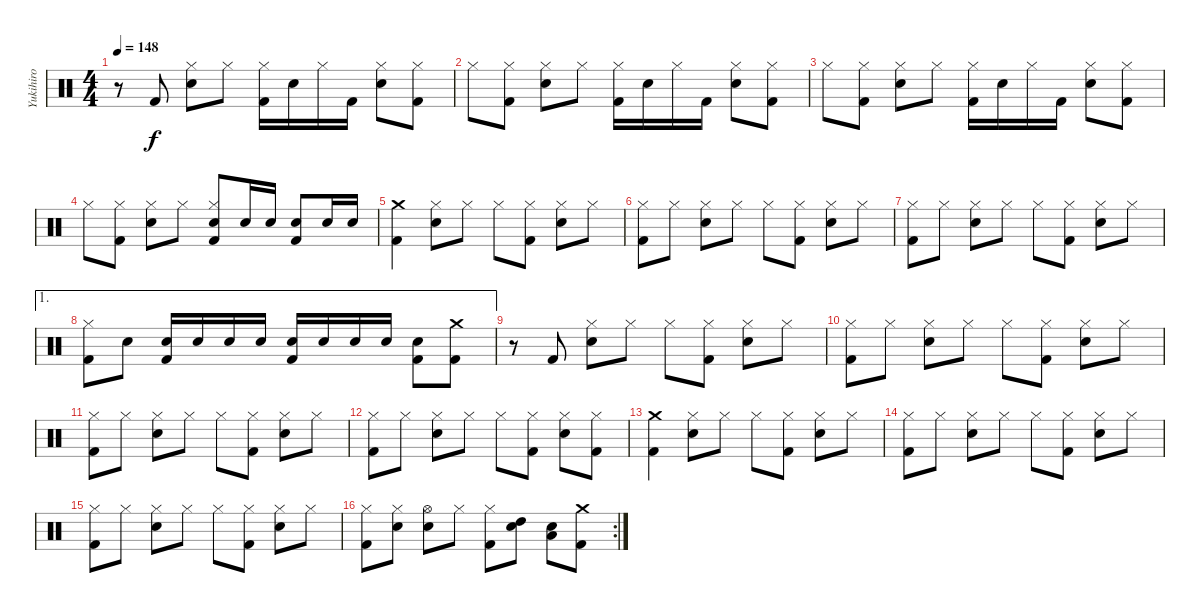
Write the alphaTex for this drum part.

\track ("Yukihiro" "Yukihiro") {instrument percussion}
\staff {score}
\articulation defaults
\ts (4 4)
\tempo 148
\clef neutral
\ks c
r.8{dy f} "Kick (hit) 2".8 ("Hi-Hat (closed)" "Snare (hit) 2").8 "Hi-Hat (closed)".8 ("Hi-Hat (closed)" "Kick (hit) 2").16 "Snare (hit) 2".16 "Hi-Hat (closed)".16 "Kick (hit) 2".16 ("Hi-Hat (closed)" "Snare (hit) 2").8 ("Hi-Hat (closed)" "Kick (hit) 2").8 |
"Hi-Hat (closed)".8 ("Hi-Hat (closed)" "Kick (hit) 2").8 ("Hi-Hat (closed)" "Snare (hit) 2").8 "Hi-Hat (closed)".8 ("Hi-Hat (closed)" "Kick (hit) 2").16 "Snare (hit) 2".16 "Hi-Hat (closed)".16 "Kick (hit) 2".16 ("Hi-Hat (closed)" "Snare (hit) 2").8 ("Hi-Hat (closed)" "Kick (hit) 2").8 |
"Hi-Hat (closed)".8 ("Hi-Hat (closed)" "Kick (hit) 2").8 ("Hi-Hat (closed)" "Snare (hit) 2").8 "Hi-Hat (closed)".8 ("Hi-Hat (closed)" "Kick (hit) 2").16 "Snare (hit) 2".16 "Hi-Hat (closed)".16 "Kick (hit) 2".16 ("Hi-Hat (closed)" "Snare (hit) 2").8 ("Hi-Hat (closed)" "Kick (hit) 2").8 |
"Hi-Hat (closed)".8 ("Hi-Hat (closed)" "Kick (hit) 2").8 ("Hi-Hat (closed)" "Snare (hit) 2").8 "Hi-Hat (closed)".8 ("Hi-Hat (closed)" "Snare (hit) 2" "Kick (hit) 2").8 "Snare (hit) 2".16 "Snare (hit) 2".16 ("Snare (hit) 2" "Kick (hit) 2").8 "Snare (hit) 2".16 "Snare (hit) 2".16 |
("Crash medium (hit)" "Kick (hit) 2").4 ("Hi-Hat (closed)" "Snare (hit) 2").8 "Hi-Hat (closed)".8 "Hi-Hat (closed)".8 ("Hi-Hat (closed)" "Kick (hit) 2").8 ("Hi-Hat (closed)" "Snare (hit) 2").8 "Hi-Hat (closed)".8 |
("Hi-Hat (closed)" "Kick (hit) 2").8 "Hi-Hat (closed)".8 ("Hi-Hat (closed)" "Snare (hit) 2").8 "Hi-Hat (closed)".8 "Hi-Hat (closed)".8 ("Hi-Hat (closed)" "Kick (hit) 2").8 ("Hi-Hat (closed)" "Snare (hit) 2").8 "Hi-Hat (closed)".8 |
("Hi-Hat (closed)" "Kick (hit) 2").8 "Hi-Hat (closed)".8 ("Hi-Hat (closed)" "Snare (hit) 2").8 "Hi-Hat (closed)".8 "Hi-Hat (closed)".8 ("Hi-Hat (closed)" "Kick (hit) 2").8 ("Hi-Hat (closed)" "Snare (hit) 2").8 "Hi-Hat (closed)".8 |
\ae 1
("Hi-Hat (closed)" "Kick (hit) 2").8 "Snare (hit) 2".8 ("Snare (hit) 2" "Kick (hit) 2").16 "Snare (hit) 2".16 "Snare (hit) 2".16 "Snare (hit) 2".16 ("Snare (hit) 2" "Kick (hit) 2").16 "Snare (hit) 2".16 "Snare (hit) 2".16 "Snare (hit) 2".16 ("Snare (hit) 2" "Kick (hit) 2").8 ("Crash medium (hit)" "Kick (hit) 2").8 |
r.8 "Kick (hit) 2".8 ("Hi-Hat (closed)" "Snare (hit) 2").8 "Hi-Hat (closed)".8 "Hi-Hat (closed)".8 ("Hi-Hat (closed)" "Kick (hit) 2").8 ("Hi-Hat (closed)" "Snare (hit) 2").8 "Hi-Hat (closed)".8 |
("Hi-Hat (closed)" "Kick (hit) 2").8 "Hi-Hat (closed)".8 ("Hi-Hat (closed)" "Snare (hit) 2").8 "Hi-Hat (closed)".8 "Hi-Hat (closed)".8 ("Hi-Hat (closed)" "Kick (hit) 2").8 ("Hi-Hat (closed)" "Snare (hit) 2").8 "Hi-Hat (closed)".8 |
("Hi-Hat (closed)" "Kick (hit) 2").8 "Hi-Hat (closed)".8 ("Hi-Hat (closed)" "Snare (hit) 2").8 "Hi-Hat (closed)".8 "Hi-Hat (closed)".8 ("Hi-Hat (closed)" "Kick (hit) 2").8 ("Hi-Hat (closed)" "Snare (hit) 2").8 "Hi-Hat (closed)".8 |
("Hi-Hat (closed)" "Kick (hit) 2").8 "Hi-Hat (closed)".8 ("Hi-Hat (closed)" "Snare (hit) 2").8 "Hi-Hat (closed)".8 "Hi-Hat (closed)".8 ("Hi-Hat (closed)" "Kick (hit) 2").8 ("Hi-Hat (closed)" "Snare (hit) 2").8 ("Hi-Hat (closed)" "Kick (hit) 2").8 |
("Crash medium (hit)" "Kick (hit) 2").4 ("Hi-Hat (closed)" "Snare (hit) 2").8 "Hi-Hat (closed)".8 "Hi-Hat (closed)".8 ("Hi-Hat (closed)" "Kick (hit) 2").8 ("Hi-Hat (closed)" "Snare (hit) 2").8 "Hi-Hat (closed)".8 |
("Hi-Hat (closed)" "Kick (hit) 2").8 "Hi-Hat (closed)".8 ("Hi-Hat (closed)" "Snare (hit) 2").8 "Hi-Hat (closed)".8 "Hi-Hat (closed)".8 ("Hi-Hat (closed)" "Kick (hit) 2").8 ("Hi-Hat (closed)" "Snare (hit) 2").8 "Hi-Hat (closed)".8 |
("Hi-Hat (closed)" "Kick (hit) 2").8 "Hi-Hat (closed)".8 ("Hi-Hat (closed)" "Snare (hit) 2").8 "Hi-Hat (closed)".8 "Hi-Hat (closed)".8 ("Hi-Hat (closed)" "Kick (hit) 2").8 ("Hi-Hat (closed)" "Snare (hit) 2").8 "Hi-Hat (closed)".8 |
\rc 2
("Hi-Hat (closed)" "Kick (hit) 2").8 ("Hi-Hat (closed)" "Snare (hit) 2").8 ("Hi-Hat (open)" "Snare (hit) 2").8 "Hi-Hat (closed)".8 ("Hi-Hat (closed)" "Kick (hit) 2").8 ("High Tom (hit)" "Snare (hit) 2").8 ("Low Tom (hit)" "Snare (hit) 2").8 ("Crash medium (hit)" "Kick (hit) 2").8
